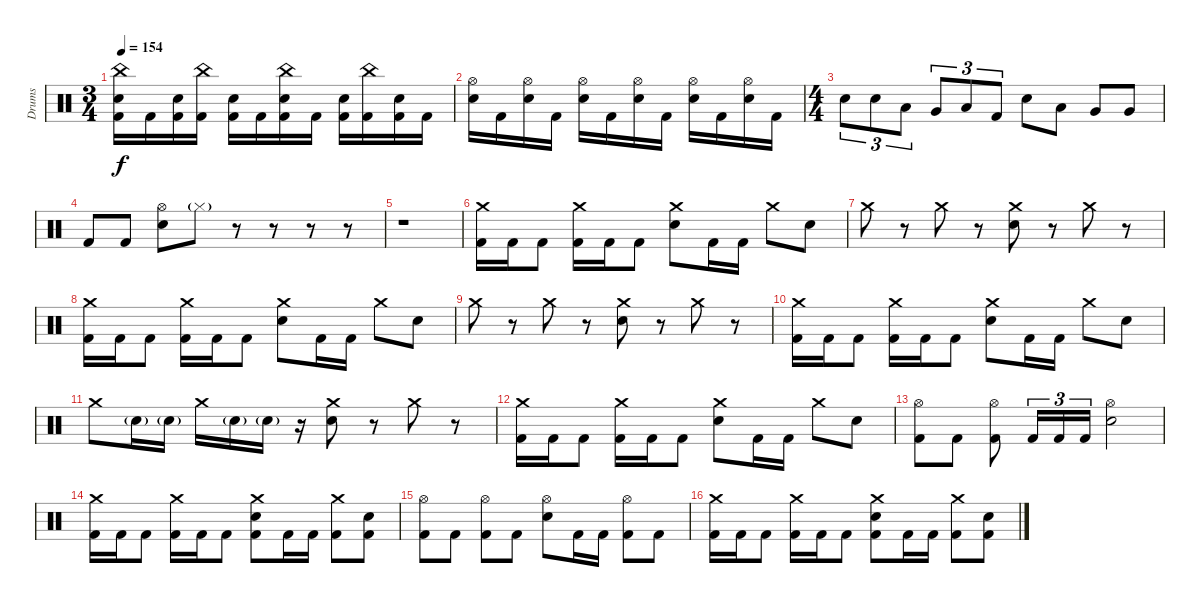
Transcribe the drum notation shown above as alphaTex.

\track ("Drums" "Drums") {instrument percussion}
\staff {score}
\articulation defaults
\ts (3 4)
\tempo 154
\clef neutral
\ks c
("China (hit)" "Electric Snare (hit)" "Kick (hit) 2").16{dy f} "Kick (hit) 2".16 ("Electric Snare (hit)" "Kick (hit) 2").16 ("China (hit)" "Kick (hit) 2").16 ("Electric Snare (hit)" "Kick (hit) 2").16 "Kick (hit) 2".16 ("China (hit)" "Electric Snare (hit)" "Kick (hit) 2").16 "Kick (hit) 2".16 ("Electric Snare (hit)" "Kick (hit) 2").16 ("China (hit)" "Kick (hit) 2").16 ("Electric Snare (hit)" "Kick (hit) 2").16 "Kick (hit) 2".16 |
("Hi-Hat (open)" "Electric Snare (hit)").16 "Kick (hit) 2".16 ("Hi-Hat (open)" "Electric Snare (hit)").16 "Kick (hit) 2".16 ("Hi-Hat (open)" "Electric Snare (hit)").16 "Kick (hit) 2".16 ("Hi-Hat (open)" "Electric Snare (hit)").16 "Kick (hit) 2".16 ("Hi-Hat (open)" "Electric Snare (hit)").16 "Kick (hit) 2".16 ("Hi-Hat (open)" "Electric Snare (hit)").16 "Kick (hit) 2".16 |
\ts (4 4)
"Electric Snare (hit)".8{tu (3 2)} "Electric Snare (hit)".8{tu (3 2)} "Low Tom (hit)".8{tu (3 2)} "Very Low Tom (hit)".8{tu (3 2)} "Low Floor Tom (hit)".8{tu (3 2)} "Kick (hit) 2".8{tu (3 2)} "Electric Snare (hit)".8 "Low Tom (hit)".8 "Very Low Tom (hit)".8 "Very Low Tom (hit)".8 |
"Kick (hit) 2".8 "Kick (hit) 2".8 ("Hi-Hat (open)" "Electric Snare (hit)").8 "Hi-Hat (closed)"{g}.8 r.8 r.8 r.8 r.8 |
r.1 |
("Crash medium (hit)" "Kick (hit) 2").16 "Kick (hit) 2".16 "Kick (hit) 2".8 ("Crash medium (hit)" "Kick (hit) 2").16 "Kick (hit) 2".16 "Kick (hit) 2".8 ("Crash medium (hit)" "Electric Snare (hit)").8 "Kick (hit) 2".16 "Kick (hit) 2".16 "Crash medium (hit)".8 "Electric Snare (hit)".8 |
"Crash medium (hit)".8 r.8 "Crash medium (hit)".8 r.8 ("Crash medium (hit)" "Electric Snare (hit)").8 r.8 "Crash medium (hit)".8 r.8 |
("Crash medium (hit)" "Kick (hit) 2").16 "Kick (hit) 2".16 "Kick (hit) 2".8 ("Crash medium (hit)" "Kick (hit) 2").16 "Kick (hit) 2".16 "Kick (hit) 2".8 ("Crash medium (hit)" "Electric Snare (hit)").8 "Kick (hit) 2".16 "Kick (hit) 2".16 "Crash medium (hit)".8 "Electric Snare (hit)".8 |
"Crash medium (hit)".8 r.8 "Crash medium (hit)".8 r.8 ("Crash medium (hit)" "Electric Snare (hit)").8 r.8 "Crash medium (hit)".8 r.8 |
("Crash medium (hit)" "Kick (hit) 2").16 "Kick (hit) 2".16 "Kick (hit) 2".8 ("Crash medium (hit)" "Kick (hit) 2").16 "Kick (hit) 2".16 "Kick (hit) 2".8 ("Crash medium (hit)" "Electric Snare (hit)").8 "Kick (hit) 2".16 "Kick (hit) 2".16 "Crash medium (hit)".8 "Electric Snare (hit)".8 |
"Crash medium (hit)".8 "Snare (hit) 2"{g}.16 "Snare (hit) 2"{g}.16 "Crash medium (hit)".16 "Snare (hit) 2"{g}.16 "Snare (hit) 2"{g}.16 r.16 ("Crash medium (hit)" "Electric Snare (hit)").8 r.8 "Crash medium (hit)".8 r.8 |
("Crash medium (hit)" "Kick (hit) 2").16 "Kick (hit) 2".16 "Kick (hit) 2".8 ("Crash medium (hit)" "Kick (hit) 2").16 "Kick (hit) 2".16 "Kick (hit) 2".8 ("Crash medium (hit)" "Electric Snare (hit)").8 "Kick (hit) 2".16 "Kick (hit) 2".16 "Crash medium (hit)".8 "Electric Snare (hit)".8 |
("Hi-Hat (open)" "Kick (hit) 2").8 "Kick (hit) 2".8 ("Hi-Hat (open)" "Kick (hit) 2").8 "Kick (hit) 2".16{tu (3 2)} "Kick (hit) 2".16{tu (3 2)} "Kick (hit) 2".16{tu (3 2)} ("Hi-Hat (open)" "Electric Snare (hit)").2 |
("Crash medium (hit)" "Kick (hit) 2").16 "Kick (hit) 2".16 "Kick (hit) 2".8 ("Crash medium (hit)" "Kick (hit) 2").16 "Kick (hit) 2".16 "Kick (hit) 2".8 ("Crash medium (hit)" "Electric Snare (hit)" "Kick (hit) 2").8 "Kick (hit) 2".16 "Kick (hit) 2".16 ("Crash medium (hit)" "Kick (hit) 2").8 ("Electric Snare (hit)" "Kick (hit) 2").8 |
("Hi-Hat (open)" "Kick (hit) 2").8 "Kick (hit) 2".8 ("Hi-Hat (open)" "Kick (hit) 2").8 "Kick (hit) 2".8 ("Hi-Hat (open)" "Electric Snare (hit)").8 "Kick (hit) 2".16 "Kick (hit) 2".16 ("Hi-Hat (open)" "Kick (hit) 2").8 "Kick (hit) 2".8 |
("Crash medium (hit)" "Kick (hit) 2").16 "Kick (hit) 2".16 "Kick (hit) 2".8 ("Crash medium (hit)" "Kick (hit) 2").16 "Kick (hit) 2".16 "Kick (hit) 2".8 ("Crash medium (hit)" "Electric Snare (hit)" "Kick (hit) 2").8 "Kick (hit) 2".16 "Kick (hit) 2".16 ("Crash medium (hit)" "Kick (hit) 2").8 ("Electric Snare (hit)" "Kick (hit) 2").8
